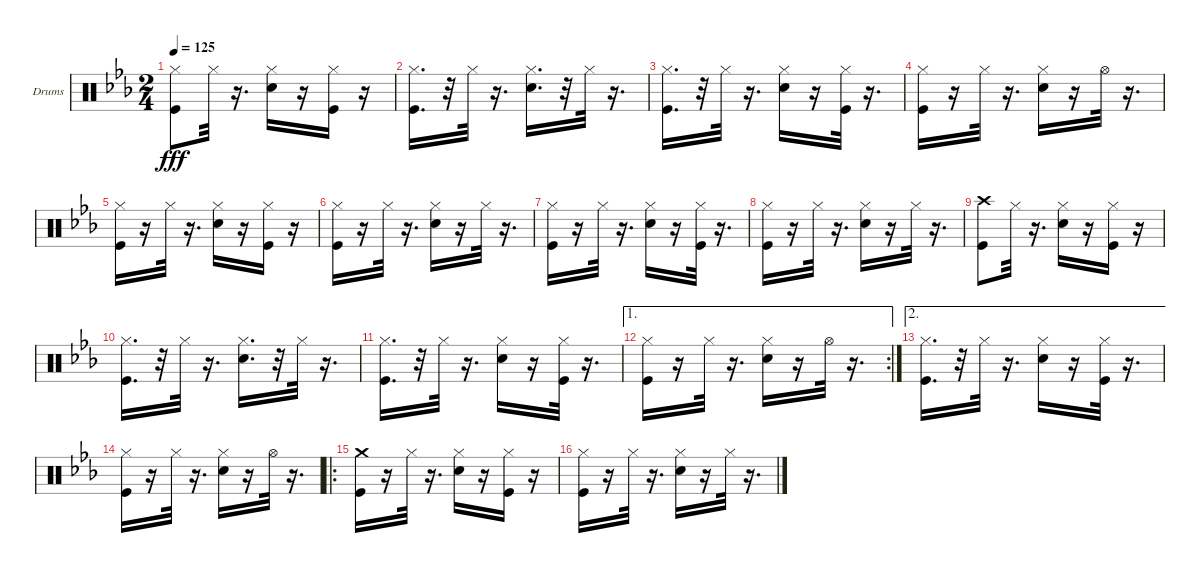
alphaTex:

\bracketExtendMode groupsimilarinstruments
\firstSystemTrackNameOrientation horizontal
\otherSystemsTrackNameOrientation horizontal
\track ("Ударные" "Drums") {instrument percussion}
\staff {score}
\articulation defaults
\ts (2 4)
\tempo 125
\clef neutral
\ks cminor
("Kick (hit)" "Hi-Hat (closed)").8{dy fff} "Hi-Hat (closed)".32 r.16{d} ("Snare (hit) 2" "Hi-Hat (closed)").16 r.16 ("Kick (hit)" "Hi-Hat (closed)").16 r.16 |
("Kick (hit)" "Hi-Hat (closed)").16{d} r.32 "Hi-Hat (closed)".32 r.16{d} ("Snare (hit) 2" "Hi-Hat (closed)").16{d} r.32 "Hi-Hat (closed)".32 r.16{d} |
("Kick (hit)" "Hi-Hat (closed)").16{d} r.32 "Hi-Hat (closed)".32 r.16{d} ("Snare (hit) 2" "Hi-Hat (closed)").16 r.16 ("Kick (hit)" "Hi-Hat (closed)").32 r.16{d} |
("Kick (hit)" "Hi-Hat (closed)").16 r.16 "Hi-Hat (closed)".32 r.16{d} ("Snare (hit) 2" "Hi-Hat (closed)").16 r.16 "Hi-Hat (open)".32 r.16{d} |
("Kick (hit)" "Hi-Hat (closed)").16 r.16 "Hi-Hat (closed)".32 r.16{d} ("Snare (hit) 2" "Hi-Hat (closed)").16 r.16 ("Kick (hit)" "Hi-Hat (closed)").16 r.16 |
("Kick (hit)" "Hi-Hat (closed)").16 r.16 "Hi-Hat (closed)".32 r.16{d} ("Snare (hit) 2" "Hi-Hat (closed)").16 r.16 "Hi-Hat (closed)".32 r.16{d} |
("Kick (hit)" "Hi-Hat (closed)").16 r.16 "Hi-Hat (closed)".32 r.16{d} ("Snare (hit) 2" "Hi-Hat (closed)").16 r.16 ("Kick (hit)" "Hi-Hat (closed)").32 r.16{d} |
("Kick (hit)" "Hi-Hat (closed)").16 r.16 "Hi-Hat (closed)".32 r.16{d} ("Snare (hit) 2" "Hi-Hat (closed)").16 r.16 "Hi-Hat (closed)".32 r.16{d} |
("Kick (hit)" "Crash high (hit)").8 "Hi-Hat (closed)".32 r.16{d} ("Snare (hit) 2" "Hi-Hat (closed)").16 r.16 ("Kick (hit)" "Hi-Hat (closed)").16 r.16 |
("Kick (hit)" "Hi-Hat (closed)").16{d} r.32 "Hi-Hat (closed)".32 r.16{d} ("Snare (hit) 2" "Hi-Hat (closed)").16{d} r.32 "Hi-Hat (closed)".32 r.16{d} |
("Kick (hit)" "Hi-Hat (closed)").16{d} r.32 "Hi-Hat (closed)".32 r.16{d} ("Snare (hit) 2" "Hi-Hat (closed)").16 r.16 ("Kick (hit)" "Hi-Hat (closed)").32 r.16{d} |
\ae 1
\rc 2
("Kick (hit)" "Hi-Hat (closed)").16 r.16 "Hi-Hat (closed)".32 r.16{d} ("Snare (hit) 2" "Hi-Hat (closed)").16 r.16 "Hi-Hat (open)".32 r.16{d} |
\ae 2
("Kick (hit)" "Hi-Hat (closed)").16{d} r.32 "Hi-Hat (closed)".32 r.16{d} ("Snare (hit) 2" "Hi-Hat (closed)").16 r.16 ("Kick (hit)" "Hi-Hat (closed)").32 r.16{d} |
("Kick (hit)" "Hi-Hat (closed)").16 r.16 "Hi-Hat (closed)".32 r.16{d} ("Snare (hit) 2" "Hi-Hat (closed)").16 r.16 "Hi-Hat (open)".32 r.16{d} |
\ro
("Kick (hit)" "Crash medium (hit)").16 r.16 "Hi-Hat (closed)".32 r.16{d} ("Snare (hit) 2" "Hi-Hat (closed)").16 r.16 ("Kick (hit)" "Hi-Hat (closed)").16 r.16 |
("Kick (hit)" "Hi-Hat (closed)").16 r.16 "Hi-Hat (closed)".32 r.16{d} ("Snare (hit) 2" "Hi-Hat (closed)").16 r.16 "Hi-Hat (closed)".32 r.16{d}
